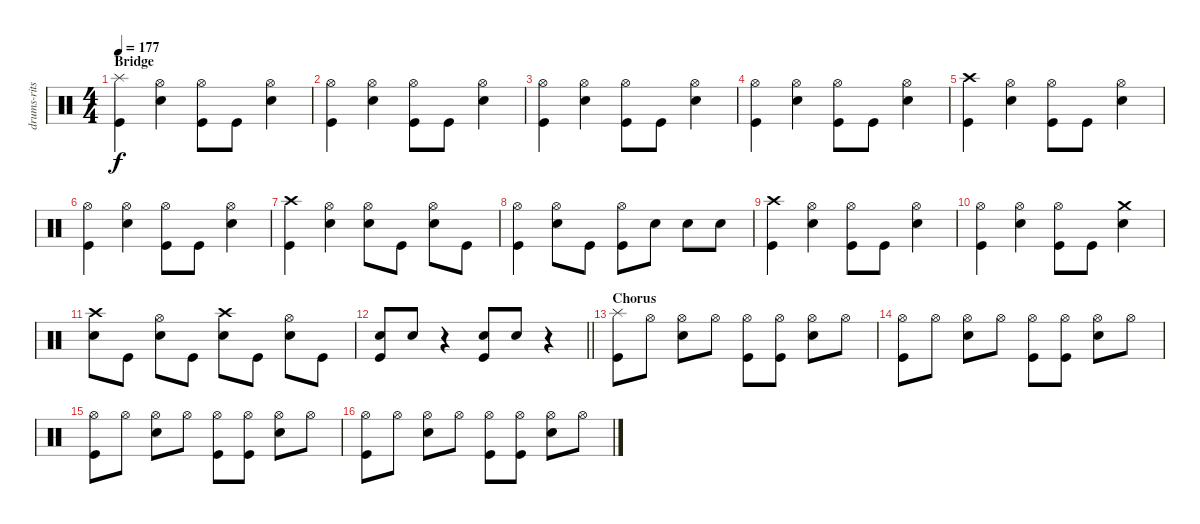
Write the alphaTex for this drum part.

\track ("drums-ritsu takana" "drums-rits") {instrument percussion}
\staff {score}
\articulation defaults
\ts (4 4)
\section ("" "Bridge")
\tempo 177
\clef neutral
\ks c
("Kick (hit)" "Splash (hit)").4{dy f} ("Hi-Hat (open)" "Snare (hit) 2").4 ("Hi-Hat (open)" "Kick (hit)").8 "Kick (hit)".8 ("Hi-Hat (open)" "Snare (hit) 2").4 |
("Hi-Hat (open)" "Kick (hit)").4 ("Hi-Hat (open)" "Snare (hit) 2").4 ("Hi-Hat (open)" "Kick (hit)").8 "Kick (hit)".8 ("Hi-Hat (open)" "Snare (hit) 2").4 |
("Hi-Hat (open)" "Kick (hit)").4 ("Hi-Hat (open)" "Snare (hit) 2").4 ("Hi-Hat (open)" "Kick (hit)").8 "Kick (hit)".8 ("Hi-Hat (open)" "Snare (hit) 2").4 |
("Hi-Hat (open)" "Kick (hit)").4 ("Hi-Hat (open)" "Snare (hit) 2").4 ("Hi-Hat (open)" "Kick (hit)").8 "Kick (hit)".8 ("Hi-Hat (open)" "Snare (hit) 2").4 |
("Crash high (hit)" "Kick (hit)").4 ("Hi-Hat (open)" "Snare (hit) 2").4 ("Hi-Hat (open)" "Kick (hit)").8 "Kick (hit)".8 ("Hi-Hat (open)" "Snare (hit) 2").4 |
("Hi-Hat (open)" "Kick (hit)").4 ("Hi-Hat (open)" "Snare (hit) 2").4 ("Hi-Hat (open)" "Kick (hit)").8 "Kick (hit)".8 ("Hi-Hat (open)" "Snare (hit) 2").4 |
("Crash high (hit)" "Kick (hit)").4 ("Hi-Hat (open)" "Snare (hit) 2").4 ("Hi-Hat (open)" "Snare (hit) 2").8 "Kick (hit)".8 ("Hi-Hat (open)" "Snare (hit) 2").8 "Kick (hit)".8 |
("Hi-Hat (open)" "Kick (hit)").4 ("Hi-Hat (open)" "Snare (hit) 2").8 "Kick (hit)".8 ("Hi-Hat (open)" "Kick (hit)").8 "Snare (hit) 2".8 "Snare (hit) 2".8 "Snare (hit) 2".8 |
("Crash high (hit)" "Kick (hit)").4 ("Hi-Hat (open)" "Snare (hit) 2").4 ("Hi-Hat (open)" "Kick (hit)").8 "Kick (hit)".8 ("Hi-Hat (open)" "Snare (hit) 2").4 |
("Hi-Hat (open)" "Kick (hit)").4 ("Hi-Hat (open)" "Snare (hit) 2").4 ("Hi-Hat (open)" "Kick (hit)").8 "Kick (hit)".8 ("Crash medium (hit)" "Snare (hit) 2").4 |
("Crash high (hit)" "Snare (hit) 2").8 "Kick (hit)".8 ("Hi-Hat (open)" "Snare (hit) 2").8 "Kick (hit)".8 ("Crash high (hit)" "Snare (hit) 2").8 "Kick (hit)".8 ("Hi-Hat (open)" "Snare (hit) 2").8 "Kick (hit)".8 |
\barLineRight lightlight
("Snare (hit) 2" "Kick (hit)").8 "Snare (hit) 2".8 r.4 ("Snare (hit) 2" "Kick (hit)").8 "Snare (hit) 2".8 r.4 |
\section ("" "Chorus")
("Kick (hit)" "Splash (hit)").8 "Hi-Hat (open)".8 ("Hi-Hat (open)" "Snare (hit) 2").8 "Hi-Hat (open)".8 ("Hi-Hat (open)" "Kick (hit)").8 ("Kick (hit)" "Hi-Hat (open)").8 ("Hi-Hat (open)" "Snare (hit) 2").8 "Hi-Hat (open)".8 |
("Kick (hit)" "Hi-Hat (open)").8 "Hi-Hat (open)".8 ("Hi-Hat (open)" "Snare (hit) 2").8 "Hi-Hat (open)".8 ("Hi-Hat (open)" "Kick (hit)").8 ("Kick (hit)" "Hi-Hat (open)").8 ("Hi-Hat (open)" "Snare (hit) 2").8 "Hi-Hat (open)".8 |
("Kick (hit)" "Hi-Hat (open)").8 "Hi-Hat (open)".8 ("Hi-Hat (open)" "Snare (hit) 2").8 "Hi-Hat (open)".8 ("Hi-Hat (open)" "Kick (hit)").8 ("Kick (hit)" "Hi-Hat (open)").8 ("Hi-Hat (open)" "Snare (hit) 2").8 "Hi-Hat (open)".8 |
("Kick (hit)" "Hi-Hat (open)").8 "Hi-Hat (open)".8 ("Hi-Hat (open)" "Snare (hit) 2").8 "Hi-Hat (open)".8 ("Hi-Hat (open)" "Kick (hit)").8 ("Kick (hit)" "Hi-Hat (open)").8 ("Hi-Hat (open)" "Snare (hit) 2").8 "Hi-Hat (open)".8
